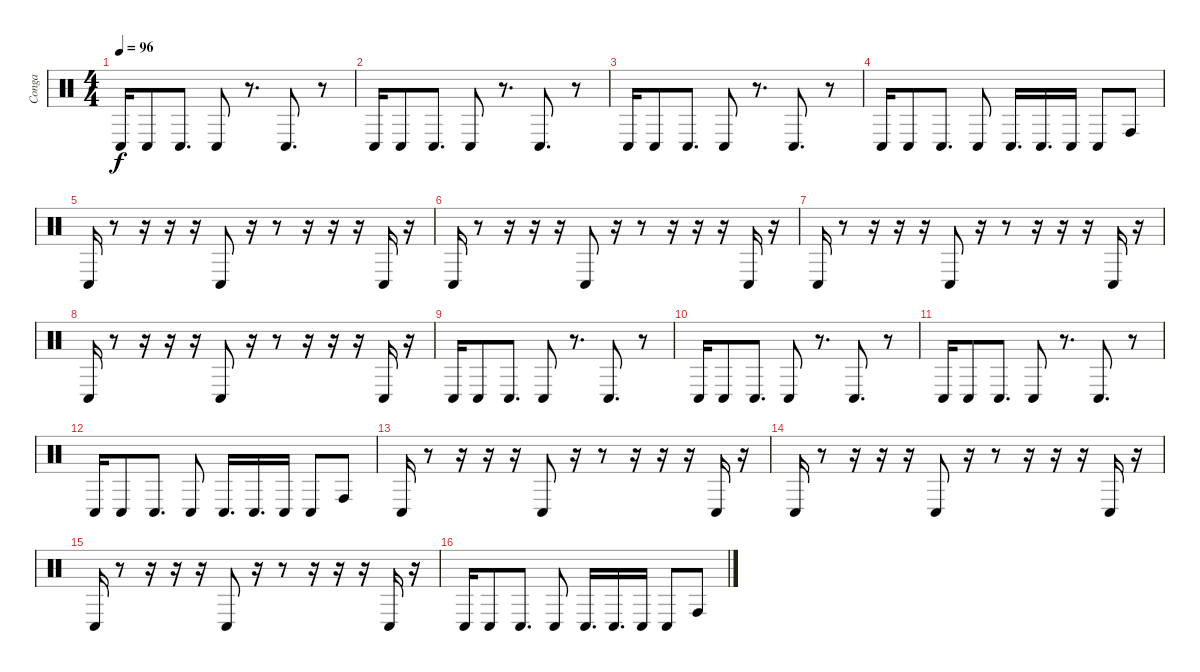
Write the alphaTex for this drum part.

\track ("Conga" "Conga") {instrument percussion}
\staff {score}
\articulation defaults
\ts (4 4)
\tempo 96
\clef neutral
\ks c "Conga low (hit)".16{dy f} "Conga low (hit)".8 "Conga low (hit)".8{d} "Conga low (hit)".8
r.8{d} "Conga low (hit)".8{d} r.8 |
"Conga low (hit)".16 "Conga low (hit)".8 "Conga low (hit)".8{d} "Conga low (hit)".8 r.8{d} "Conga low (hit)".8{d} r.8 |
"Conga low (hit)".16 "Conga low (hit)".8 "Conga low (hit)".8{d} "Conga low (hit)".8 r.8{d} "Conga low (hit)".8{d} r.8 |
"Conga low (hit)".16 "Conga low (hit)".8 "Conga low (hit)".8{d} "Conga low (hit)".8 "Conga low (hit)".16{d} "Conga low (hit)".16{d} "Conga low (hit)".16 "Conga low (hit)".8 "Conga high (hit)".8 |
"Conga low (hit)".16 r.8 r.16 r.16 r.16 "Conga low (hit)".8 r.16 r.8 r.16 r.16 r.16 "Conga low (hit)".16 r.16 |
"Conga low (hit)".16 r.8 r.16 r.16 r.16 "Conga low (hit)".8 r.16 r.8 r.16 r.16 r.16 "Conga low (hit)".16 r.16 |
"Conga low (hit)".16 r.8 r.16 r.16 r.16 "Conga low (hit)".8 r.16 r.8 r.16 r.16 r.16 "Conga low (hit)".16 r.16 |
"Conga low (hit)".16 r.8 r.16 r.16 r.16 "Conga low (hit)".8 r.16 r.8 r.16 r.16 r.16 "Conga low (hit)".16 r.16 |
"Conga low (hit)".16 "Conga low (hit)".8 "Conga low (hit)".8{d} "Conga low (hit)".8 r.8{d} "Conga low (hit)".8{d} r.8 |
"Conga low (hit)".16 "Conga low (hit)".8 "Conga low (hit)".8{d} "Conga low (hit)".8 r.8{d} "Conga low (hit)".8{d} r.8 |
"Conga low (hit)".16 "Conga low (hit)".8 "Conga low (hit)".8{d} "Conga low (hit)".8 r.8{d} "Conga low (hit)".8{d} r.8 |
"Conga low (hit)".16 "Conga low (hit)".8 "Conga low (hit)".8{d} "Conga low (hit)".8 "Conga low (hit)".16{d} "Conga low (hit)".16{d} "Conga low (hit)".16 "Conga low (hit)".8 "Conga high (hit)".8 |
"Conga low (hit)".16 r.8 r.16 r.16 r.16 "Conga low (hit)".8 r.16 r.8 r.16 r.16 r.16 "Conga low (hit)".16 r.16 |
"Conga low (hit)".16 r.8 r.16 r.16 r.16 "Conga low (hit)".8 r.16 r.8 r.16 r.16 r.16 "Conga low (hit)".16 r.16 |
"Conga low (hit)".16 r.8 r.16 r.16 r.16 "Conga low (hit)".8 r.16 r.8 r.16 r.16 r.16 "Conga low (hit)".16 r.16 |
"Conga low (hit)".16 "Conga low (hit)".8 "Conga low (hit)".8{d} "Conga low (hit)".8 "Conga low (hit)".16{d} "Conga low (hit)".16{d} "Conga low (hit)".16 "Conga low (hit)".8 "Conga high (hit)".8
